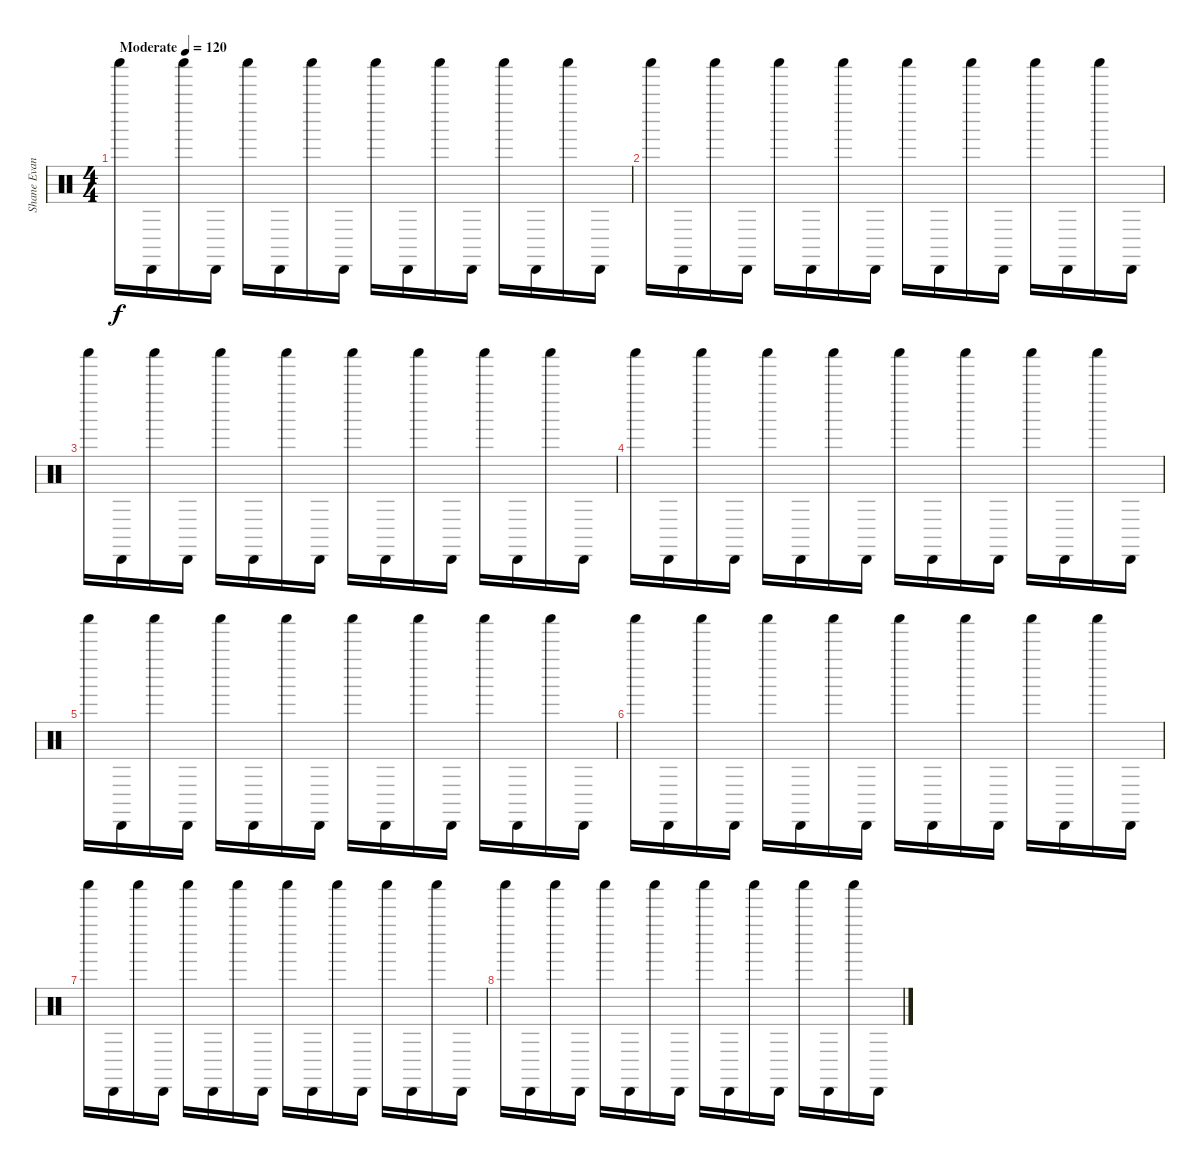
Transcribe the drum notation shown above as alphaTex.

\track ("Shane Evans" "Shane Evan") {instrument percussion}
\staff {score}
\articulation defaults
\ts (4 4)
\tempo (120 "Moderate")
\clef neutral
\ks c "Shaker (hit)".16{dy f} "Cabasa (hit)".16 "Shaker (hit)".16 "Cabasa (hit)".16 "Shaker (hit)".16 "Cabasa (hit)".16 "Shaker (hit)".16 "Cabasa (hit)".16 "Shaker (hit)".16 "Cabasa (hit)".16 "Shaker (hit)".16 "Cabasa (hit)".16 "Shaker (hit)".16 "Cabasa (hit)".16 "Shaker (hit)".16 "Cabasa (hit)".16
|
"Shaker (hit)".16 "Cabasa (hit)".16 "Shaker (hit)".16 "Cabasa (hit)".16 "Shaker (hit)".16 "Cabasa (hit)".16 "Shaker (hit)".16 "Cabasa (hit)".16 "Shaker (hit)".16 "Cabasa (hit)".16 "Shaker (hit)".16 "Cabasa (hit)".16 "Shaker (hit)".16 "Cabasa (hit)".16 "Shaker (hit)".16 "Cabasa (hit)".16 |
"Shaker (hit)".16 "Cabasa (hit)".16 "Shaker (hit)".16 "Cabasa (hit)".16 "Shaker (hit)".16 "Cabasa (hit)".16 "Shaker (hit)".16 "Cabasa (hit)".16 "Shaker (hit)".16 "Cabasa (hit)".16 "Shaker (hit)".16 "Cabasa (hit)".16 "Shaker (hit)".16 "Cabasa (hit)".16 "Shaker (hit)".16 "Cabasa (hit)".16 |
"Shaker (hit)".16 "Cabasa (hit)".16 "Shaker (hit)".16 "Cabasa (hit)".16 "Shaker (hit)".16 "Cabasa (hit)".16 "Shaker (hit)".16 "Cabasa (hit)".16 "Shaker (hit)".16 "Cabasa (hit)".16 "Shaker (hit)".16 "Cabasa (hit)".16 "Shaker (hit)".16 "Cabasa (hit)".16 "Shaker (hit)".16 "Cabasa (hit)".16 |
"Shaker (hit)".16 "Cabasa (hit)".16 "Shaker (hit)".16 "Cabasa (hit)".16 "Shaker (hit)".16 "Cabasa (hit)".16 "Shaker (hit)".16 "Cabasa (hit)".16 "Shaker (hit)".16 "Cabasa (hit)".16 "Shaker (hit)".16 "Cabasa (hit)".16 "Shaker (hit)".16 "Cabasa (hit)".16 "Shaker (hit)".16 "Cabasa (hit)".16 |
"Shaker (hit)".16 "Cabasa (hit)".16 "Shaker (hit)".16 "Cabasa (hit)".16 "Shaker (hit)".16 "Cabasa (hit)".16 "Shaker (hit)".16 "Cabasa (hit)".16 "Shaker (hit)".16 "Cabasa (hit)".16 "Shaker (hit)".16 "Cabasa (hit)".16 "Shaker (hit)".16 "Cabasa (hit)".16 "Shaker (hit)".16 "Cabasa (hit)".16 |
"Shaker (hit)".16 "Cabasa (hit)".16 "Shaker (hit)".16 "Cabasa (hit)".16 "Shaker (hit)".16 "Cabasa (hit)".16 "Shaker (hit)".16 "Cabasa (hit)".16 "Shaker (hit)".16 "Cabasa (hit)".16 "Shaker (hit)".16 "Cabasa (hit)".16 "Shaker (hit)".16 "Cabasa (hit)".16 "Shaker (hit)".16 "Cabasa (hit)".16 |
"Shaker (hit)".16 "Cabasa (hit)".16 "Shaker (hit)".16 "Cabasa (hit)".16 "Shaker (hit)".16 "Cabasa (hit)".16 "Shaker (hit)".16 "Cabasa (hit)".16 "Shaker (hit)".16 "Cabasa (hit)".16 "Shaker (hit)".16 "Cabasa (hit)".16 "Shaker (hit)".16 "Cabasa (hit)".16 "Shaker (hit)".16 "Cabasa (hit)".16
